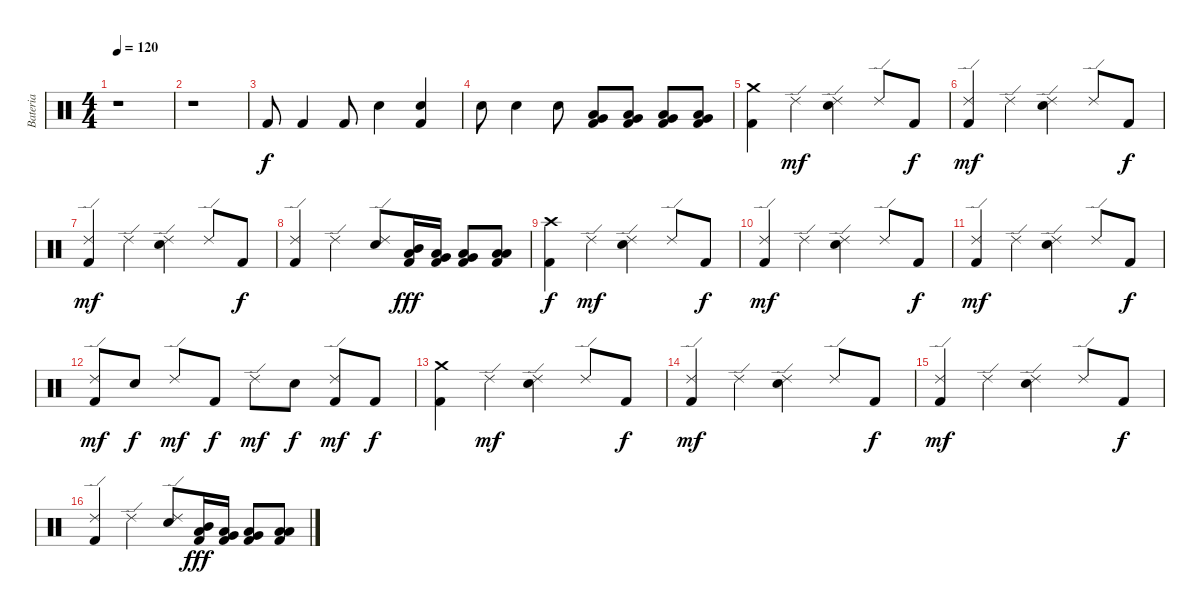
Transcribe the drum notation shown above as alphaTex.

\track ("Bateria" "Bateria") {instrument percussion}
\staff {score}
\articulation defaults
\ts (4 4)
\tempo 120
\clef neutral
\ks c
r.1{dy f} |
r.1 |
"Kick (hit) 2".8 "Kick (hit) 2".4 "Kick (hit) 2".8 "Snare (hit) 2".4 ("Snare (hit) 2" "Kick (hit) 2").4 |
"Snare (hit) 2".8 "Snare (hit) 2".4 "Snare (hit) 2".8 ("Low Tom (hit)" "Very Low Tom (hit)" "Kick (hit) 2").8 ("Low Tom (hit)" "Very Low Tom (hit)" "Kick (hit) 2").8 ("Very Low Tom (hit)" "Low Floor Tom (hit)" "Kick (hit) 2").8 ("Very Low Tom (hit)" "Low Floor Tom (hit)" "Kick (hit) 2").8 |
("Crash medium (hit)" "Kick (hit) 2").4 "Ride (edge) 2".4{dy mf} ("Ride (edge) 2" "Snare (hit) 2").4 "Ride (edge) 2".8 "Kick (hit) 2".8{dy f} |
("Ride (edge) 2" "Kick (hit) 2").4{dy mf} "Ride (edge) 2".4 ("Ride (edge) 2" "Snare (hit) 2").4 "Ride (edge) 2".8 "Kick (hit) 2".8{dy f} |
("Ride (edge) 2" "Kick (hit) 2").4{dy mf} "Ride (edge) 2".4 ("Ride (edge) 2" "Snare (hit) 2").4 "Ride (edge) 2".8 "Kick (hit) 2".8{dy f} |
("Ride (edge) 2" "Kick (hit) 2").4 "Ride (edge) 2".4 ("Ride (edge) 2" "Snare (hit) 2").8 ("Mid Tom (hit)" "Low Tom (hit)" "Kick (hit) 2").16{dy fff} ("Low Tom (hit)" "Very Low Tom (hit)" "Kick (hit) 2").16 ("Very Low Tom (hit)" "Low Floor Tom (hit)" "Kick (hit) 2").8 ("Low Floor Tom (hit)" "Low Floor Tom (hit)" "Kick (hit) 2").8 |
("Crash high (hit)" "Kick (hit) 2").4{dy f} "Ride (edge) 2".4{dy mf} ("Ride (edge) 2" "Snare (hit) 2").4 "Ride (edge) 2".8 "Kick (hit) 2".8{dy f} |
("Ride (edge) 2" "Kick (hit) 2").4{dy mf} "Ride (edge) 2".4 ("Ride (edge) 2" "Snare (hit) 2").4 "Ride (edge) 2".8 "Kick (hit) 2".8{dy f} |
("Ride (edge) 2" "Kick (hit) 2").4{dy mf} "Ride (edge) 2".4 ("Ride (edge) 2" "Snare (hit) 2").4 "Ride (edge) 2".8 "Kick (hit) 2".8{dy f} |
("Ride (edge) 2" "Kick (hit) 2").8{dy mf} "Snare (hit) 2".8{dy f} "Ride (edge) 2".8{dy mf} "Kick (hit) 2".8{dy f} "Ride (edge) 2".8{dy mf} "Snare (hit) 2".8{dy f} ("Ride (edge) 2" "Kick (hit) 2").8{dy mf} "Kick (hit) 2".8{dy f} |
("Crash medium (hit)" "Kick (hit) 2").4 "Ride (edge) 2".4{dy mf} ("Ride (edge) 2" "Snare (hit) 2").4 "Ride (edge) 2".8 "Kick (hit) 2".8{dy f} |
("Ride (edge) 2" "Kick (hit) 2").4{dy mf} "Ride (edge) 2".4 ("Ride (edge) 2" "Snare (hit) 2").4 "Ride (edge) 2".8 "Kick (hit) 2".8{dy f} |
("Ride (edge) 2" "Kick (hit) 2").4{dy mf} "Ride (edge) 2".4 ("Ride (edge) 2" "Snare (hit) 2").4 "Ride (edge) 2".8 "Kick (hit) 2".8{dy f} |
("Ride (edge) 2" "Kick (hit) 2").4 "Ride (edge) 2".4 ("Ride (edge) 2" "Snare (hit) 2").8 ("Mid Tom (hit)" "Low Tom (hit)" "Kick (hit) 2").16{dy fff} ("Low Tom (hit)" "Very Low Tom (hit)" "Kick (hit) 2").16 ("Very Low Tom (hit)" "Low Floor Tom (hit)" "Kick (hit) 2").8 ("Low Floor Tom (hit)" "Low Floor Tom (hit)" "Kick (hit) 2").8
